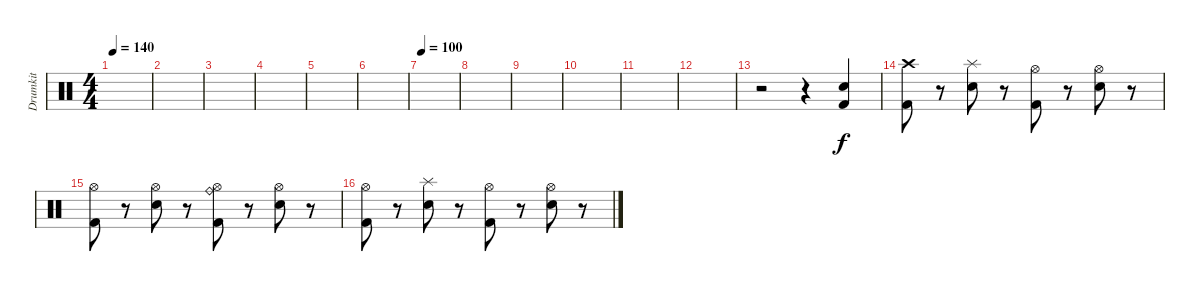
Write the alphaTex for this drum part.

\track ("Drumkit" "Drumkit") {instrument percussion}
\staff {score}
\articulation defaults
\ts (4 4)
\tempo 140
\clef neutral
\ks c
|
|
|
|
|
|
\tempo 100
|
|
|
|
|
|
r.2 r.4 ("Snare (hit) 2" "Kick (hit) 2").4 |
("Kick (hit) 2" "Crash high (hit)").8 r.8 ("Snare (hit) 2" "Splash (hit)").8 r.8 ("Kick (hit) 2" "Hi-Hat (open)").8 r.8 ("Snare (hit) 2" "Hi-Hat (open)").8 r.8 |
("Kick (hit) 2" "Hi-Hat (open)").8 r.8 ("Snare (hit) 2" "Hi-Hat (open)").8 r.8 ("Kick (hit) 2" "Hi-Hat (open)" "Ride (bell)").8 r.8 ("Hi-Hat (open)" "Snare (hit) 2").8 r.8 |
("Kick (hit) 2" "Hi-Hat (open)").8 r.8 ("Snare (hit) 2" "Splash (hit)").8 r.8 ("Kick (hit) 2" "Hi-Hat (open)").8 r.8 ("Snare (hit) 2" "Hi-Hat (open)").8 r.8
